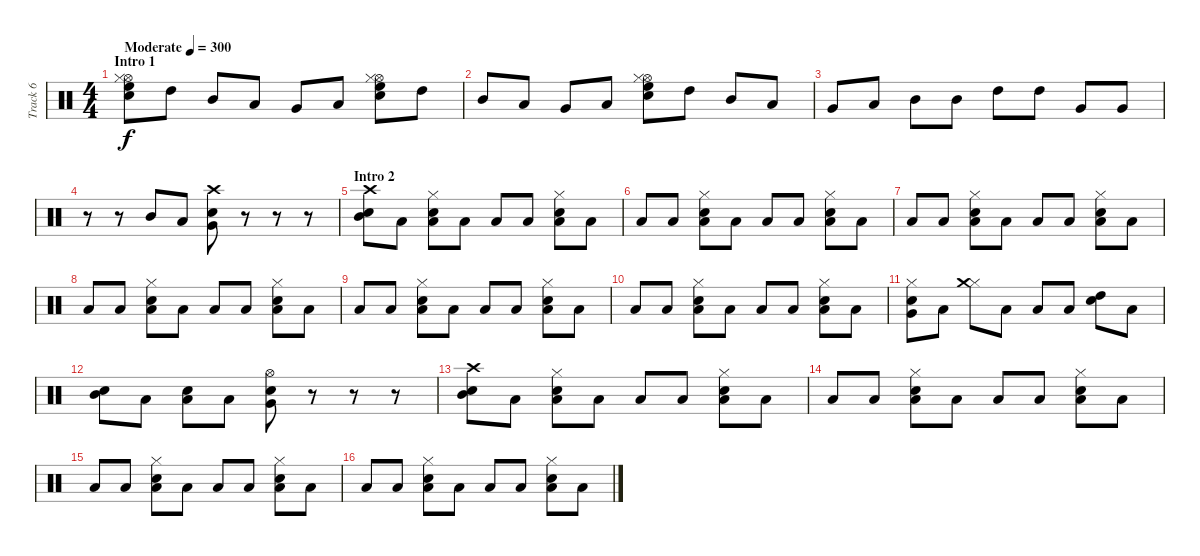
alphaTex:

\track ("Track 6" "Track 6") {instrument percussion}
\staff {score}
\articulation defaults
\ts (4 4)
\section ("" "Intro 1")
\tempo (300 "Moderate")
\clef neutral
\ks c
("High Floor Tom (hit)" "Electric Snare (hit)" "Hi-Hat (open)" "Hi-Hat (closed)").8{dy f} "High Tom (hit)".8 "Mid Tom (hit)".8 "Low Tom (hit)".8 "Very Low Tom (hit)".8 "Low Floor Tom (hit)".8 ("High Floor Tom (hit)" "Electric Snare (hit)" "Hi-Hat (open)" "Hi-Hat (closed)").8 "High Tom (hit)".8 |
"Mid Tom (hit)".8 "Low Tom (hit)".8 "Very Low Tom (hit)".8 "Low Floor Tom (hit)".8 ("High Floor Tom (hit)" "Electric Snare (hit)" "Hi-Hat (open)" "Hi-Hat (closed)").8 "High Tom (hit)".8 "Mid Tom (hit)".8 "Low Tom (hit)".8 |
"Very Low Tom (hit)".8 "Low Floor Tom (hit)".8 "Mid Tom (hit)".8 "Mid Tom (hit)".8 "High Tom (hit)".8 "High Tom (hit)".8 "Very Low Tom (hit)".8 "Very Low Tom (hit)".8 |
r.8 r.8 "Mid Tom (hit)".8 "Low Tom (hit)".8 ("Snare (hit) 2" "Very Low Tom (hit)" "Crash high (hit)").8 r.8 r.8 r.8 |
\section ("" "Intro 2")
("Snare (hit) 2" "Mid Tom (hit)" "Crash high (hit)").8 "Low Floor Tom (hit)".8 ("Electric Snare (hit)" "Low Tom (hit)" "Hi-Hat (closed)").8 "Low Floor Tom (hit)".8 "Low Floor Tom (hit)".8 "Low Floor Tom (hit)".8 ("Electric Snare (hit)" "Low Tom (hit)" "Hi-Hat (closed)").8 "Low Floor Tom (hit)".8 |
"Low Floor Tom (hit)".8 "Low Floor Tom (hit)".8 ("Electric Snare (hit)" "Low Tom (hit)" "Hi-Hat (closed)").8 "Low Floor Tom (hit)".8 "Low Floor Tom (hit)".8 "Low Floor Tom (hit)".8 ("Electric Snare (hit)" "Low Tom (hit)" "Hi-Hat (closed)").8 "Low Floor Tom (hit)".8 |
"Low Floor Tom (hit)".8 "Low Floor Tom (hit)".8 ("Electric Snare (hit)" "Low Tom (hit)" "Hi-Hat (closed)").8 "Low Floor Tom (hit)".8 "Low Floor Tom (hit)".8 "Low Floor Tom (hit)".8 ("Electric Snare (hit)" "Low Tom (hit)" "Hi-Hat (closed)").8 "Low Floor Tom (hit)".8 |
"Low Floor Tom (hit)".8 "Low Floor Tom (hit)".8 ("Electric Snare (hit)" "Low Tom (hit)" "Hi-Hat (closed)").8 "Low Floor Tom (hit)".8 "Low Floor Tom (hit)".8 "Low Floor Tom (hit)".8 ("Electric Snare (hit)" "Low Tom (hit)" "Hi-Hat (closed)").8 "Low Floor Tom (hit)".8 |
"Low Floor Tom (hit)".8 "Low Floor Tom (hit)".8 ("Electric Snare (hit)" "Low Tom (hit)" "Hi-Hat (closed)").8 "Low Floor Tom (hit)".8 "Low Floor Tom (hit)".8 "Low Floor Tom (hit)".8 ("Electric Snare (hit)" "Low Tom (hit)" "Hi-Hat (closed)").8 "Low Floor Tom (hit)".8 |
"Low Floor Tom (hit)".8 "Low Floor Tom (hit)".8 ("Electric Snare (hit)" "Low Tom (hit)" "Hi-Hat (closed)").8 "Low Floor Tom (hit)".8 "Low Floor Tom (hit)".8 "Low Floor Tom (hit)".8 ("Electric Snare (hit)" "Low Tom (hit)" "Hi-Hat (closed)").8 "Low Floor Tom (hit)".8 |
("Snare (hit) 2" "Very Low Tom (hit)" "Hi-Hat (closed)").8 "Low Floor Tom (hit)".8 ("Hi-Hat (closed)" "Crash medium (hit)").8 "Low Floor Tom (hit)".8 "Low Floor Tom (hit)".8 "Low Floor Tom (hit)".8 ("High Tom (hit)" "Snare (hit) 2").8 "Low Floor Tom (hit)".8 |
("Mid Tom (hit)" "Snare (hit) 2").8 "Low Floor Tom (hit)".8 ("Low Tom (hit)" "Snare (hit) 2").8 "Low Floor Tom (hit)".8 ("Very Low Tom (hit)" "Snare (hit) 2" "Hi-Hat (open)").8 r.8 r.8 r.8 |
("Snare (hit) 2" "Mid Tom (hit)" "Crash high (hit)").8 "Low Floor Tom (hit)".8 ("Electric Snare (hit)" "Low Tom (hit)" "Hi-Hat (closed)").8 "Low Floor Tom (hit)".8 "Low Floor Tom (hit)".8 "Low Floor Tom (hit)".8 ("Electric Snare (hit)" "Low Tom (hit)" "Hi-Hat (closed)").8 "Low Floor Tom (hit)".8 |
"Low Floor Tom (hit)".8 "Low Floor Tom (hit)".8 ("Electric Snare (hit)" "Low Tom (hit)" "Hi-Hat (closed)").8 "Low Floor Tom (hit)".8 "Low Floor Tom (hit)".8 "Low Floor Tom (hit)".8 ("Electric Snare (hit)" "Low Tom (hit)" "Hi-Hat (closed)").8 "Low Floor Tom (hit)".8 |
"Low Floor Tom (hit)".8 "Low Floor Tom (hit)".8 ("Electric Snare (hit)" "Low Tom (hit)" "Hi-Hat (closed)").8 "Low Floor Tom (hit)".8 "Low Floor Tom (hit)".8 "Low Floor Tom (hit)".8 ("Electric Snare (hit)" "Low Tom (hit)" "Hi-Hat (closed)").8 "Low Floor Tom (hit)".8 |
"Low Floor Tom (hit)".8 "Low Floor Tom (hit)".8 ("Electric Snare (hit)" "Low Tom (hit)" "Hi-Hat (closed)").8 "Low Floor Tom (hit)".8 "Low Floor Tom (hit)".8 "Low Floor Tom (hit)".8 ("Electric Snare (hit)" "Low Tom (hit)" "Hi-Hat (closed)").8 "Low Floor Tom (hit)".8
